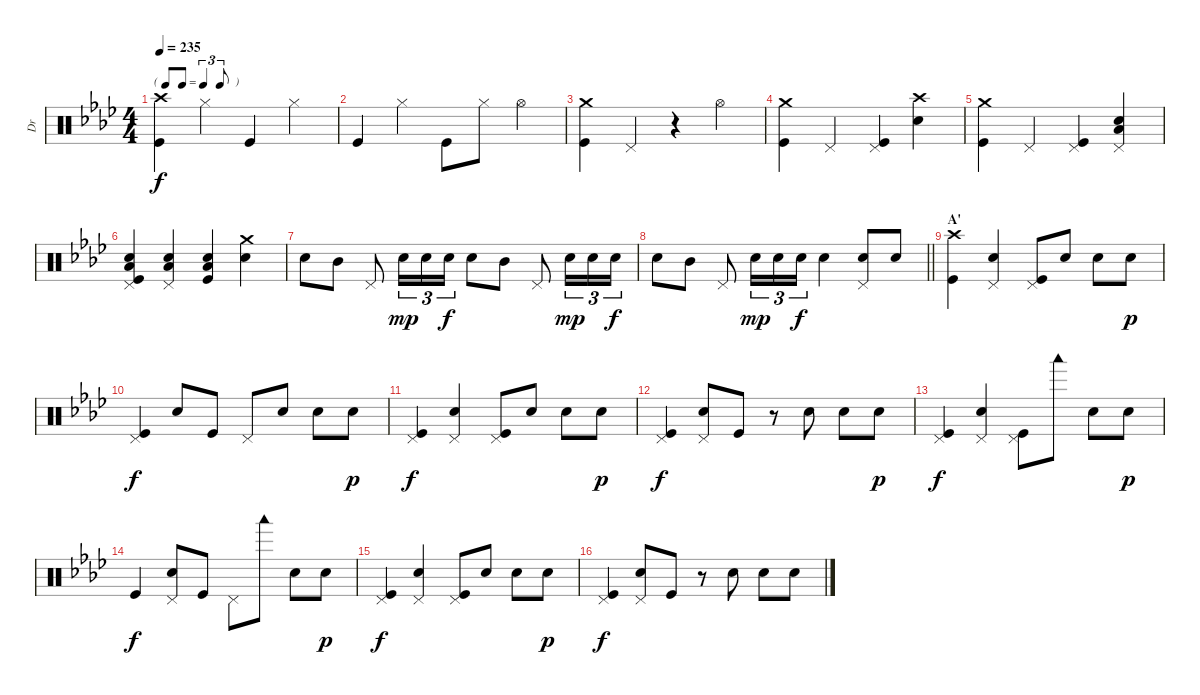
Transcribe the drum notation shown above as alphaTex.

\track ("Dr" "Dr") {instrument percussion}
\staff {score}
\articulation defaults
\ts (4 4)
\tf triplet8th
\tempo 235
\clef neutral
\ks ab
("Crash high (hit)" "Kick (hit)").4{dy f} "Hi-Hat (closed)".4 "Kick (hit)".4 "Hi-Hat (closed)".4 |
"Kick (hit)".4 "Hi-Hat (closed)".4 "Kick (hit)".8 "Hi-Hat (closed)".8 "Hi-Hat (open)".4 |
("Crash medium (hit)" "Kick (hit)").4 "Pedal Hi-Hat (hit)".4 r.4 "Hi-Hat (open)".4 |
("Crash medium (hit)" "Kick (hit)").4 "Pedal Hi-Hat (hit)".4 ("Kick (hit)" "Pedal Hi-Hat (hit)").4 ("Crash high (hit)" "Electric Snare (hit)").4 |
("Crash medium (hit)" "Kick (hit)").4 "Pedal Hi-Hat (hit)".4 ("Kick (hit)" "Pedal Hi-Hat (hit)").4 ("Electric Snare (hit)" "Low Floor Tom (hit)" "Pedal Hi-Hat (hit)").4 |
("Electric Snare (hit)" "Low Floor Tom (hit)" "Kick (hit)" "Pedal Hi-Hat (hit)").4 ("Electric Snare (hit)" "Low Floor Tom (hit)" "Pedal Hi-Hat (hit)").4 ("Electric Snare (hit)" "Low Floor Tom (hit)" "Kick (hit)").4 ("Crash medium (hit)" "Electric Snare (hit)").4 |
"Electric Snare (hit)".8 "Mid Tom (hit)".8 "Pedal Hi-Hat (hit)".8 "Electric Snare (hit)".16{tu (3 2) dy mp} "Electric Snare (hit)".16{tu (3 2)} "Electric Snare (hit)".16{tu (3 2) dy f} "Electric Snare (hit)".8 "Mid Tom (hit)".8 "Pedal Hi-Hat (hit)".8 "Electric Snare (hit)".16{tu (3 2) dy mp} "Electric Snare (hit)".16{tu (3 2)} "Electric Snare (hit)".16{tu (3 2) dy f} |
\barLineRight lightlight "Electric Snare (hit)".8 "Mid Tom (hit)".8 "Pedal Hi-Hat (hit)".8 "Electric Snare (hit)".16{tu (3 2) dy mp} "Electric Snare (hit)".16{tu (3 2)} "Electric Snare (hit)".16{tu (3 2) dy f} "Electric Snare (hit)".4
("Electric Snare (hit)" "Pedal Hi-Hat (hit)").8 "Electric Snare (hit)".8 |
\section ("" "A'")
("Crash high (hit)" "Kick (hit)").4 ("Electric Snare (hit)" "Pedal Hi-Hat (hit)").4 ("Kick (hit)" "Pedal Hi-Hat (hit)").8 "Electric Snare (hit)".8 "Electric Snare (hit)".8 "Electric Snare (hit)".8{dy p} |
("Kick (hit)" "Pedal Hi-Hat (hit)").4{dy f} "Electric Snare (hit)".8 "Kick (hit)".8 "Pedal Hi-Hat (hit)".8 "Electric Snare (hit)".8 "Electric Snare (hit)".8 "Electric Snare (hit)".8{dy p} |
("Kick (hit)" "Pedal Hi-Hat (hit)").4{dy f} ("Electric Snare (hit)" "Pedal Hi-Hat (hit)").4 ("Kick (hit)" "Pedal Hi-Hat (hit)").8 "Electric Snare (hit)".8 "Electric Snare (hit)".8 "Electric Snare (hit)".8{dy p} |
("Kick (hit)" "Pedal Hi-Hat (hit)").4{dy f} ("Electric Snare (hit)" "Pedal Hi-Hat (hit)").8 "Kick (hit)".8 r.8 "Electric Snare (hit)".8 "Electric Snare (hit)".8 "Electric Snare (hit)".8{dy p} |
("Kick (hit)" "Pedal Hi-Hat (hit)").4{dy f} ("Electric Snare (hit)" "Pedal Hi-Hat (hit)").4 ("Kick (hit)" "Pedal Hi-Hat (hit)").8 "Woodblock low (hit)".8 "Electric Snare (hit)".8 "Electric Snare (hit)".8{dy p} |
"Kick (hit)".4{dy f} ("Electric Snare (hit)" "Pedal Hi-Hat (hit)").8 "Kick (hit)".8 "Pedal Hi-Hat (hit)".8 "Woodblock low (hit)".8 "Electric Snare (hit)".8 "Electric Snare (hit)".8{dy p} |
("Kick (hit)" "Pedal Hi-Hat (hit)").4{dy f} ("Electric Snare (hit)" "Pedal Hi-Hat (hit)").4 ("Kick (hit)" "Pedal Hi-Hat (hit)").8 "Electric Snare (hit)".8 "Electric Snare (hit)".8 "Electric Snare (hit)".8{dy p} |
("Kick (hit)" "Pedal Hi-Hat (hit)").4{dy f} ("Electric Snare (hit)" "Pedal Hi-Hat (hit)").8 "Kick (hit)".8 r.8 "Electric Snare (hit)".8 "Electric Snare (hit)".8 "Electric Snare (hit)".8
